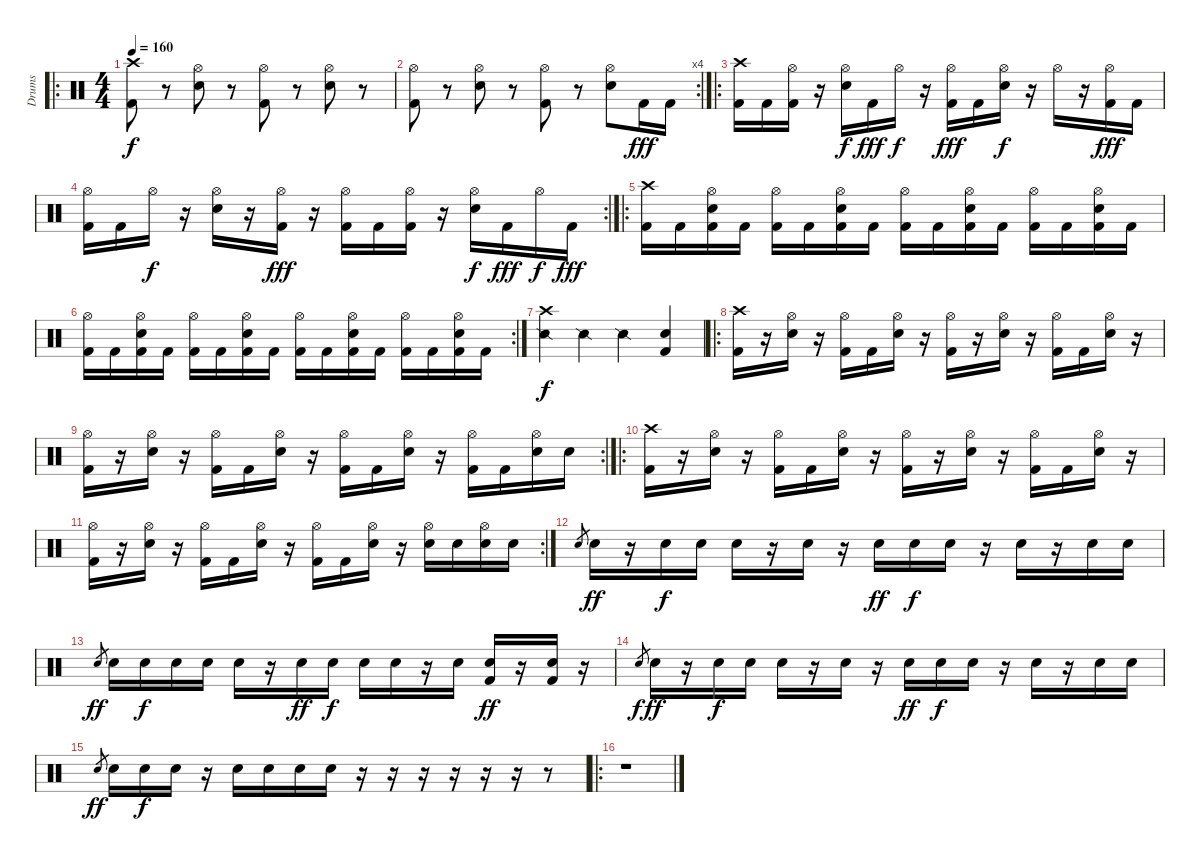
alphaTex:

\track ("Drums" "Drums") {instrument percussion}
\staff {score}
\articulation defaults
\ro
\ts (4 4)
\tempo 160
\clef neutral
\ks c
("Crash high (hit)" "Kick (hit) 2").8{dy f} r.8 ("Hi-Hat (open)" "Electric Snare (hit)").8 r.8 ("Hi-Hat (open)" "Kick (hit) 2").8 r.8 ("Hi-Hat (open)" "Electric Snare (hit)").8 r.8 |
\rc 4
("Hi-Hat (open)" "Kick (hit) 2").8 r.8 ("Hi-Hat (open)" "Electric Snare (hit)").8 r.8 ("Hi-Hat (open)" "Kick (hit) 2").8 r.8 ("Hi-Hat (open)" "Electric Snare (hit)").8 "Kick (hit) 2".16{dy fff} "Kick (hit) 2".16 |
\ro
("Crash high (hit)" "Kick (hit) 2").16 "Kick (hit) 2".16 ("Hi-Hat (open)" "Kick (hit) 2").16 r.16 ("Hi-Hat (open)" "Electric Snare (hit)").16{dy f} "Kick (hit) 2".16{dy fff} "Hi-Hat (open)".16{dy f} r.16 ("Hi-Hat (open)" "Kick (hit) 2").16{dy fff} "Kick (hit) 2".16 ("Hi-Hat (open)" "Electric Snare (hit)").16{dy f} r.16 "Hi-Hat (open)".16 r.16 ("Hi-Hat (open)" "Kick (hit) 2").16{dy fff} "Kick (hit) 2".16 |
\rc 2
("Hi-Hat (open)" "Kick (hit) 2").16 "Kick (hit) 2".16 "Hi-Hat (open)".16{dy f} r.16 ("Hi-Hat (open)" "Electric Snare (hit)").16 r.16 ("Hi-Hat (open)" "Kick (hit) 2").16{dy fff} r.16 ("Hi-Hat (open)" "Kick (hit) 2").16 "Kick (hit) 2".16 ("Hi-Hat (open)" "Kick (hit) 2").16 r.16 ("Hi-Hat (open)" "Electric Snare (hit)").16{dy f} "Kick (hit) 2".16{dy fff} "Hi-Hat (open)".16{dy f} "Kick (hit) 2".16{dy fff} |
\ro
("Crash high (hit)" "Kick (hit) 2").16 "Kick (hit) 2".16 ("Hi-Hat (open)" "Electric Snare (hit)" "Kick (hit) 2").16 "Kick (hit) 2".16 ("Hi-Hat (open)" "Kick (hit) 2").16 "Kick (hit) 2".16 ("Hi-Hat (open)" "Electric Snare (hit)" "Kick (hit) 2").16 "Kick (hit) 2".16 ("Hi-Hat (open)" "Kick (hit) 2").16 "Kick (hit) 2".16 ("Hi-Hat (open)" "Electric Snare (hit)" "Kick (hit) 2").16 "Kick (hit) 2".16 ("Hi-Hat (open)" "Kick (hit) 2").16 "Kick (hit) 2".16 ("Hi-Hat (open)" "Electric Snare (hit)" "Kick (hit) 2").16 "Kick (hit) 2".16 |
\rc 2
("Hi-Hat (open)" "Kick (hit) 2").16 "Kick (hit) 2".16 ("Hi-Hat (open)" "Electric Snare (hit)" "Kick (hit) 2").16 "Kick (hit) 2".16 ("Hi-Hat (open)" "Kick (hit) 2").16 "Kick (hit) 2".16 ("Hi-Hat (open)" "Electric Snare (hit)" "Kick (hit) 2").16 "Kick (hit) 2".16 ("Hi-Hat (open)" "Kick (hit) 2").16 "Kick (hit) 2".16 ("Hi-Hat (open)" "Electric Snare (hit)" "Kick (hit) 2").16 "Kick (hit) 2".16 ("Hi-Hat (open)" "Kick (hit) 2").16 "Kick (hit) 2".16 ("Hi-Hat (open)" "Electric Snare (hit)" "Kick (hit) 2").16 "Kick (hit) 2".16 |
("Crash high (hit)" "Snare (side stick) 2").4{dy f} "Snare (side stick) 2".4 "Snare (side stick) 2".4 ("Kick (hit) 2" "Electric Snare (hit)").4 |
\ro
("Crash high (hit)" "Kick (hit) 2").16 r.16 ("Hi-Hat (open)" "Electric Snare (hit)").16 r.16 ("Hi-Hat (open)" "Kick (hit) 2").16 "Kick (hit) 2".16 ("Hi-Hat (open)" "Electric Snare (hit)").16 r.16 ("Hi-Hat (open)" "Kick (hit) 2").16 r.16 ("Hi-Hat (open)" "Electric Snare (hit)").16 r.16 ("Hi-Hat (open)" "Kick (hit) 2").16 "Kick (hit) 2".16 ("Hi-Hat (open)" "Electric Snare (hit)").16 r.16 |
\rc 2
("Hi-Hat (open)" "Kick (hit) 2").16 r.16 ("Hi-Hat (open)" "Electric Snare (hit)").16 r.16 ("Hi-Hat (open)" "Kick (hit) 2").16 "Kick (hit) 2".16 ("Hi-Hat (open)" "Electric Snare (hit)").16 r.16 ("Hi-Hat (open)" "Kick (hit) 2").16 "Kick (hit) 2".16 ("Hi-Hat (open)" "Electric Snare (hit)").16 r.16 ("Hi-Hat (open)" "Kick (hit) 2").16 "Kick (hit) 2".16 ("Hi-Hat (open)" "Electric Snare (hit)").16 "Electric Snare (hit)".16 |
\ro
("Crash high (hit)" "Kick (hit) 2").16 r.16 ("Hi-Hat (open)" "Electric Snare (hit)").16 r.16 ("Hi-Hat (open)" "Kick (hit) 2").16 "Kick (hit) 2".16 ("Hi-Hat (open)" "Electric Snare (hit)").16 r.16 ("Hi-Hat (open)" "Kick (hit) 2").16 r.16 ("Hi-Hat (open)" "Electric Snare (hit)").16 r.16 ("Hi-Hat (open)" "Kick (hit) 2").16 "Kick (hit) 2".16 ("Hi-Hat (open)" "Electric Snare (hit)").16 r.16 |
\rc 2
("Hi-Hat (open)" "Kick (hit) 2").16 r.16 ("Hi-Hat (open)" "Electric Snare (hit)").16 r.16 ("Hi-Hat (open)" "Kick (hit) 2").16 "Kick (hit) 2".16 ("Hi-Hat (open)" "Electric Snare (hit)").16 r.16 ("Hi-Hat (open)" "Kick (hit) 2").16 "Kick (hit) 2".16 ("Hi-Hat (open)" "Electric Snare (hit)").16 r.16 ("Hi-Hat (open)" "Electric Snare (hit)").16 "Electric Snare (hit)".16 ("Hi-Hat (open)" "Electric Snare (hit)").16 "Electric Snare (hit)".16 |
"Electric Snare (hit)".8{gr} "Electric Snare (hit)".16{dy ff} r.16 "Electric Snare (hit)".16{dy f} "Electric Snare (hit)".16 "Electric Snare (hit)".16 r.16 "Electric Snare (hit)".16 r.16 "Electric Snare (hit)".16{dy ff} "Electric Snare (hit)".16{dy f} "Electric Snare (hit)".16 r.16 "Electric Snare (hit)".16 r.16 "Electric Snare (hit)".16 "Electric Snare (hit)".16 |
"Electric Snare (hit)".8{gr dy ff} "Electric Snare (hit)".16 "Electric Snare (hit)".16{dy f} "Electric Snare (hit)".16 "Electric Snare (hit)".16 "Electric Snare (hit)".16 r.16 "Electric Snare (hit)".16{dy ff} "Electric Snare (hit)".16{dy f} "Electric Snare (hit)".16 "Electric Snare (hit)".16 r.16 "Electric Snare (hit)".16 ("Electric Snare (hit)" "Kick (hit) 2").16{dy ff} r.16 ("Electric Snare (hit)" "Kick (hit) 2").16 r.16 |
"Electric Snare (hit)".8{gr dy f} "Electric Snare (hit)".16{dy ff} r.16 "Electric Snare (hit)".16{dy f} "Electric Snare (hit)".16 "Electric Snare (hit)".16 r.16 "Electric Snare (hit)".16 r.16 "Electric Snare (hit)".16{dy ff} "Electric Snare (hit)".16{dy f} "Electric Snare (hit)".16 r.16 "Electric Snare (hit)".16 r.16 "Electric Snare (hit)".16 "Electric Snare (hit)".16 |
"Electric Snare (hit)".8{gr dy ff} "Electric Snare (hit)".16 "Electric Snare (hit)".16{dy f} "Electric Snare (hit)".16 r.16 "Electric Snare (hit)".16 "Electric Snare (hit)".16 "Electric Snare (hit)".16 "Electric Snare (hit)".16 r.16 r.16 r.16 r.16 r.16 r.16 r.8 |
\ro
r.1
